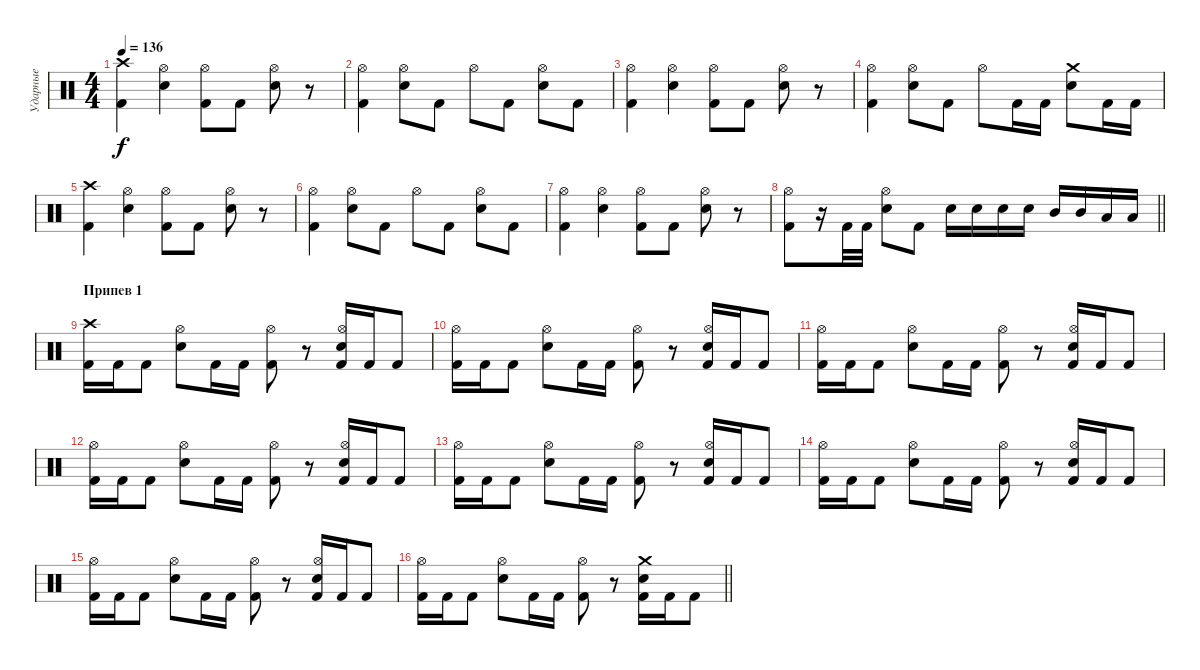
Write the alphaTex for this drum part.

\track ("Ударные" "Ударные") {instrument percussion}
\staff {score}
\articulation defaults
\ts (4 4)
\tempo 136
\clef neutral
\ks c
("Crash high (hit)" "Kick (hit) 2").4{dy f} ("Hi-Hat (open)" "Snare (hit) 2").4 ("Hi-Hat (open)" "Kick (hit) 2").8 "Kick (hit) 2".8 ("Hi-Hat (open)" "Snare (hit) 2").8 r.8 |
("Hi-Hat (open)" "Kick (hit) 2").4 ("Hi-Hat (open)" "Snare (hit) 2").8 "Kick (hit) 2".8 "Hi-Hat (open)".8 "Kick (hit) 2".8 ("Hi-Hat (open)" "Snare (hit) 2").8 "Kick (hit) 2".8 |
("Hi-Hat (open)" "Kick (hit) 2").4 ("Hi-Hat (open)" "Snare (hit) 2").4 ("Hi-Hat (open)" "Kick (hit) 2").8 "Kick (hit) 2".8 ("Hi-Hat (open)" "Snare (hit) 2").8 r.8 |
("Hi-Hat (open)" "Kick (hit) 2").4 ("Hi-Hat (open)" "Snare (hit) 2").8 "Kick (hit) 2".8 "Hi-Hat (open)".8 "Kick (hit) 2".16 "Kick (hit) 2".16 ("Crash medium (hit)" "Snare (hit) 2").8 "Kick (hit) 2".16 "Kick (hit) 2".16 |
("Crash high (hit)" "Kick (hit) 2").4 ("Hi-Hat (open)" "Snare (hit) 2").4 ("Hi-Hat (open)" "Kick (hit) 2").8 "Kick (hit) 2".8 ("Hi-Hat (open)" "Snare (hit) 2").8 r.8 |
("Hi-Hat (open)" "Kick (hit) 2").4 ("Hi-Hat (open)" "Snare (hit) 2").8 "Kick (hit) 2".8 "Hi-Hat (open)".8 "Kick (hit) 2".8 ("Hi-Hat (open)" "Snare (hit) 2").8 "Kick (hit) 2".8 |
("Hi-Hat (open)" "Kick (hit) 2").4 ("Hi-Hat (open)" "Snare (hit) 2").4 ("Hi-Hat (open)" "Kick (hit) 2").8 "Kick (hit) 2".8 ("Hi-Hat (open)" "Snare (hit) 2").8 r.8 |
\barLineRight lightlight
("Hi-Hat (open)" "Kick (hit) 2").8 r.16 "Kick (hit) 2".32 "Kick (hit) 2".32 ("Hi-Hat (open)" "Snare (hit) 2").8 "Kick (hit) 2".8 "Snare (hit) 2".16 "Snare (hit) 2".16 "Snare (hit) 2".16 "Snare (hit) 2".16 "Mid Tom (hit)".16 "Mid Tom (hit)".16 "Low Tom (hit)".16 "Low Tom (hit)".16 |
\section ("" "Припев 1")
("Crash high (hit)" "Kick (hit) 2").16 "Kick (hit) 2".16 "Kick (hit) 2".8 ("Hi-Hat (open)" "Snare (hit) 2").8 "Kick (hit) 2".16 "Kick (hit) 2".16 ("Hi-Hat (open)" "Kick (hit) 2").8 r.8 ("Hi-Hat (open)" "Snare (hit) 2" "Kick (hit) 2").16 "Kick (hit) 2".16 "Kick (hit) 2".8 |
("Hi-Hat (open)" "Kick (hit) 2").16 "Kick (hit) 2".16 "Kick (hit) 2".8 ("Hi-Hat (open)" "Snare (hit) 2").8 "Kick (hit) 2".16 "Kick (hit) 2".16 ("Hi-Hat (open)" "Kick (hit) 2").8 r.8 ("Hi-Hat (open)" "Snare (hit) 2" "Kick (hit) 2").16 "Kick (hit) 2".16 "Kick (hit) 2".8 |
("Hi-Hat (open)" "Kick (hit) 2").16 "Kick (hit) 2".16 "Kick (hit) 2".8 ("Hi-Hat (open)" "Snare (hit) 2").8 "Kick (hit) 2".16 "Kick (hit) 2".16 ("Hi-Hat (open)" "Kick (hit) 2").8 r.8 ("Hi-Hat (open)" "Snare (hit) 2" "Kick (hit) 2").16 "Kick (hit) 2".16 "Kick (hit) 2".8 |
("Hi-Hat (open)" "Kick (hit) 2").16 "Kick (hit) 2".16 "Kick (hit) 2".8 ("Hi-Hat (open)" "Snare (hit) 2").8 "Kick (hit) 2".16 "Kick (hit) 2".16 ("Hi-Hat (open)" "Kick (hit) 2").8 r.8 ("Hi-Hat (open)" "Snare (hit) 2" "Kick (hit) 2").16 "Kick (hit) 2".16 "Kick (hit) 2".8 |
("Hi-Hat (open)" "Kick (hit) 2").16 "Kick (hit) 2".16 "Kick (hit) 2".8 ("Hi-Hat (open)" "Snare (hit) 2").8 "Kick (hit) 2".16 "Kick (hit) 2".16 ("Hi-Hat (open)" "Kick (hit) 2").8 r.8 ("Hi-Hat (open)" "Snare (hit) 2" "Kick (hit) 2").16 "Kick (hit) 2".16 "Kick (hit) 2".8 |
("Hi-Hat (open)" "Kick (hit) 2").16 "Kick (hit) 2".16 "Kick (hit) 2".8 ("Hi-Hat (open)" "Snare (hit) 2").8 "Kick (hit) 2".16 "Kick (hit) 2".16 ("Hi-Hat (open)" "Kick (hit) 2").8 r.8 ("Hi-Hat (open)" "Snare (hit) 2" "Kick (hit) 2").16 "Kick (hit) 2".16 "Kick (hit) 2".8 |
("Hi-Hat (open)" "Kick (hit) 2").16 "Kick (hit) 2".16 "Kick (hit) 2".8 ("Hi-Hat (open)" "Snare (hit) 2").8 "Kick (hit) 2".16 "Kick (hit) 2".16 ("Hi-Hat (open)" "Kick (hit) 2").8 r.8 ("Hi-Hat (open)" "Snare (hit) 2" "Kick (hit) 2").16 "Kick (hit) 2".16 "Kick (hit) 2".8 |
\barLineRight lightlight
("Hi-Hat (open)" "Kick (hit) 2").16 "Kick (hit) 2".16 "Kick (hit) 2".8 ("Hi-Hat (open)" "Snare (hit) 2").8 "Kick (hit) 2".16 "Kick (hit) 2".16 ("Hi-Hat (open)" "Kick (hit) 2").8 r.8 ("Crash medium (hit)" "Snare (hit) 2" "Kick (hit) 2").16 "Kick (hit) 2".16 "Kick (hit) 2".8
